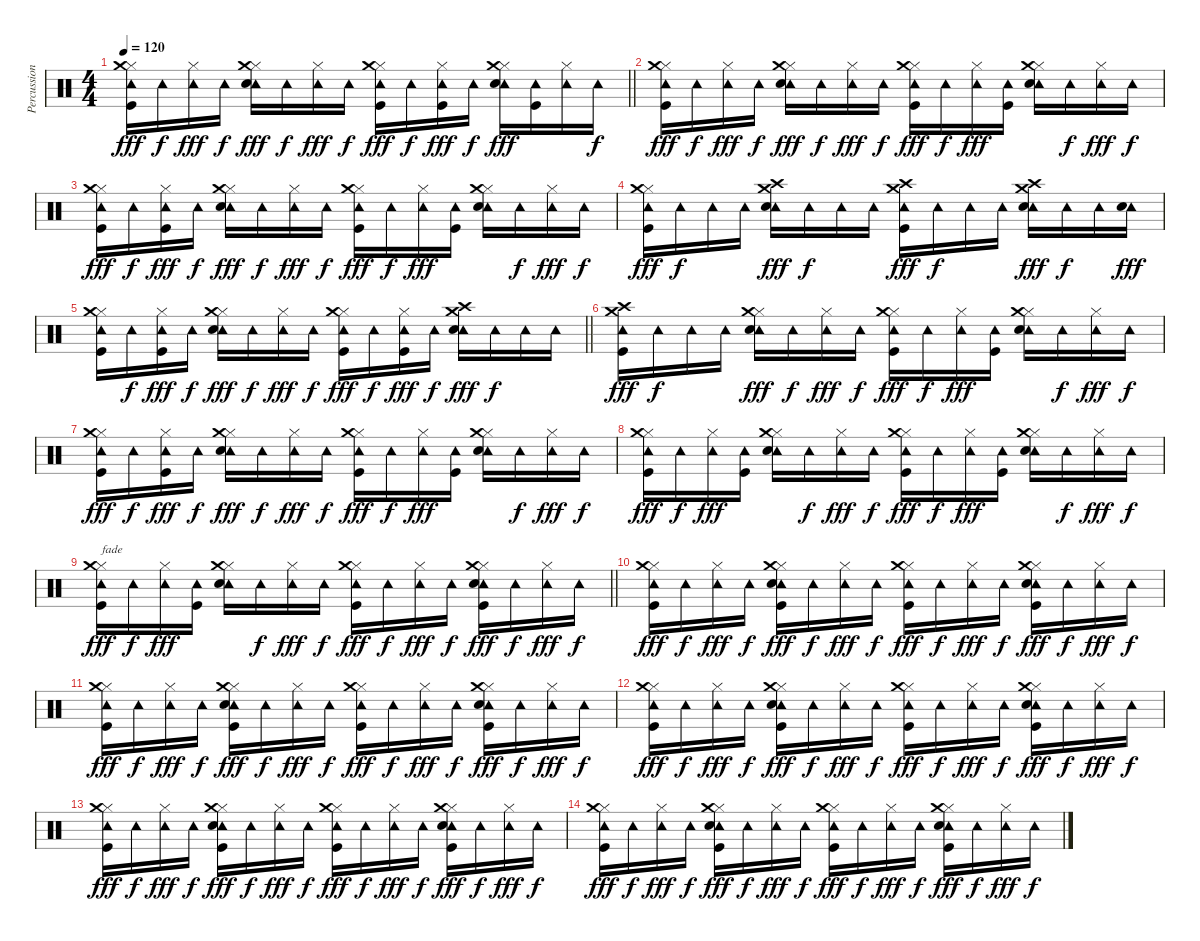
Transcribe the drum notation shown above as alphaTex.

\track ("Percussioni" "Percussion") {instrument percussion}
\staff {score}
\articulation defaults
\ts (4 4)
\tempo 120
\clef neutral
\barLineRight lightlight
\ks c
("Hi-Hat (closed)" "Tambourine (hit)" "Crash medium (hit)" "Kick (hit)").16{dy fff} "Tambourine (hit)".16{dy f} ("Hi-Hat (closed)" "Tambourine (hit)").16{dy fff} "Tambourine (hit)".16{dy f} ("Hi-Hat (closed)" "Tambourine (hit)" "Crash medium (hit)" "Snare (hit) 2").16{dy fff} "Tambourine (hit)".16{dy f} ("Hi-Hat (closed)" "Tambourine (hit)").16{dy fff} "Tambourine (hit)".16{dy f} ("Hi-Hat (closed)" "Tambourine (hit)" "Crash medium (hit)" "Kick (hit)").16{dy fff} "Tambourine (hit)".16{dy f} ("Hi-Hat (closed)" "Tambourine (hit)" "Kick (hit)").16{dy fff} "Tambourine (hit)".16{dy f} ("Hi-Hat (closed)" "Tambourine (hit)" "Crash medium (hit)" "Snare (hit) 2").16{dy fff} ("Tambourine (hit)" "Kick (hit)").16 ("Hi-Hat (closed)" "Tambourine (hit)").16 "Tambourine (hit)".16{dy f} |
("Hi-Hat (closed)" "Tambourine (hit)" "Crash medium (hit)" "Kick (hit)").16{dy fff} "Tambourine (hit)".16{dy f} ("Hi-Hat (closed)" "Tambourine (hit)").16{dy fff} "Tambourine (hit)".16{dy f} ("Hi-Hat (closed)" "Tambourine (hit)" "Crash medium (hit)" "Snare (hit) 2").16{dy fff} "Tambourine (hit)".16{dy f} ("Hi-Hat (closed)" "Tambourine (hit)").16{dy fff} "Tambourine (hit)".16{dy f} ("Hi-Hat (closed)" "Tambourine (hit)" "Crash medium (hit)" "Kick (hit)").16{dy fff} "Tambourine (hit)".16{dy f} ("Hi-Hat (closed)" "Tambourine (hit)").16{dy fff} ("Tambourine (hit)" "Kick (hit)").16 ("Hi-Hat (closed)" "Tambourine (hit)" "Crash medium (hit)" "Snare (hit) 2").16 "Tambourine (hit)".16{dy f} ("Hi-Hat (closed)" "Tambourine (hit)").16{dy fff} "Tambourine (hit)".16{dy f} |
("Hi-Hat (closed)" "Tambourine (hit)" "Crash medium (hit)" "Kick (hit)").16{dy fff} "Tambourine (hit)".16{dy f} ("Hi-Hat (closed)" "Tambourine (hit)" "Kick (hit)").16{dy fff} "Tambourine (hit)".16{dy f} ("Hi-Hat (closed)" "Tambourine (hit)" "Crash medium (hit)" "Snare (hit) 2").16{dy fff} "Tambourine (hit)".16{dy f} ("Hi-Hat (closed)" "Tambourine (hit)").16{dy fff} "Tambourine (hit)".16{dy f} ("Hi-Hat (closed)" "Tambourine (hit)" "Crash medium (hit)" "Kick (hit)").16{dy fff} "Tambourine (hit)".16{dy f} ("Hi-Hat (closed)" "Tambourine (hit)").16{dy fff} ("Tambourine (hit)" "Kick (hit)").16 ("Hi-Hat (closed)" "Tambourine (hit)" "Crash medium (hit)" "Snare (hit) 2").16 "Tambourine (hit)".16{dy f} ("Hi-Hat (closed)" "Tambourine (hit)").16{dy fff} "Tambourine (hit)".16{dy f} |
("Hi-Hat (closed)" "Tambourine (hit)" "Crash medium (hit)" "Kick (hit)").16{dy fff} "Tambourine (hit)".16{dy f} "Tambourine (hit)".16 "Tambourine (hit)".16 ("Crash high (hit)" "Tambourine (hit)" "Crash medium (hit)" "Snare (hit) 2").16{dy fff} "Tambourine (hit)".16{dy f} "Tambourine (hit)".16 "Tambourine (hit)".16 ("Crash high (hit)" "Tambourine (hit)" "Crash medium (hit)" "Kick (hit)").16{dy fff} "Tambourine (hit)".16{dy f} "Tambourine (hit)".16 "Tambourine (hit)".16 ("Crash high (hit)" "Tambourine (hit)" "Crash medium (hit)" "Snare (hit) 2").16{dy fff} "Tambourine (hit)".16{dy f} "Tambourine (hit)".16 ("Tambourine (hit)" "Snare (hit) 2").16{dy fff} |
\barLineRight lightlight
("Hi-Hat (closed)" "Tambourine (hit)" "Crash medium (hit)" "Kick (hit)").16 "Tambourine (hit)".16{dy f} ("Hi-Hat (closed)" "Tambourine (hit)" "Kick (hit)").16{dy fff} "Tambourine (hit)".16{dy f} ("Hi-Hat (closed)" "Tambourine (hit)" "Crash medium (hit)" "Snare (hit) 2").16{dy fff} "Tambourine (hit)".16{dy f} ("Hi-Hat (closed)" "Tambourine (hit)").16{dy fff} "Tambourine (hit)".16{dy f} ("Hi-Hat (closed)" "Tambourine (hit)" "Crash medium (hit)" "Kick (hit)").16{dy fff} "Tambourine (hit)".16{dy f} ("Hi-Hat (closed)" "Tambourine (hit)" "Kick (hit)").16{dy fff} "Tambourine (hit)".16{dy f} ("Crash high (hit)" "Tambourine (hit)" "Crash medium (hit)" "Snare (hit) 2").16{dy fff} "Tambourine (hit)".16{dy f} "Tambourine (hit)".16 "Tambourine (hit)".16 |
("Crash high (hit)" "Tambourine (hit)" "Crash medium (hit)" "Kick (hit)").16{dy fff} "Tambourine (hit)".16{dy f} "Tambourine (hit)".16 "Tambourine (hit)".16 ("Hi-Hat (closed)" "Tambourine (hit)" "Crash medium (hit)" "Snare (hit) 2").16{dy fff} "Tambourine (hit)".16{dy f} ("Hi-Hat (closed)" "Tambourine (hit)").16{dy fff} "Tambourine (hit)".16{dy f} ("Hi-Hat (closed)" "Tambourine (hit)" "Crash medium (hit)" "Kick (hit)").16{dy fff} "Tambourine (hit)".16{dy f} ("Hi-Hat (closed)" "Tambourine (hit)").16{dy fff} ("Tambourine (hit)" "Kick (hit)").16 ("Hi-Hat (closed)" "Tambourine (hit)" "Crash medium (hit)" "Snare (hit) 2").16 "Tambourine (hit)".16{dy f} ("Hi-Hat (closed)" "Tambourine (hit)").16{dy fff} "Tambourine (hit)".16{dy f} |
("Hi-Hat (closed)" "Tambourine (hit)" "Crash medium (hit)" "Kick (hit)").16{dy fff} "Tambourine (hit)".16{dy f} ("Hi-Hat (closed)" "Tambourine (hit)" "Kick (hit)").16{dy fff} "Tambourine (hit)".16{dy f} ("Hi-Hat (closed)" "Tambourine (hit)" "Crash medium (hit)" "Snare (hit) 2").16{dy fff} "Tambourine (hit)".16{dy f} ("Hi-Hat (closed)" "Tambourine (hit)").16{dy fff} "Tambourine (hit)".16{dy f} ("Hi-Hat (closed)" "Tambourine (hit)" "Crash medium (hit)" "Kick (hit)").16{dy fff} "Tambourine (hit)".16{dy f} ("Hi-Hat (closed)" "Tambourine (hit)").16{dy fff} ("Tambourine (hit)" "Kick (hit)").16 ("Hi-Hat (closed)" "Tambourine (hit)" "Crash medium (hit)" "Snare (hit) 2").16 "Tambourine (hit)".16{dy f} ("Hi-Hat (closed)" "Tambourine (hit)").16{dy fff} "Tambourine (hit)".16{dy f} |
("Hi-Hat (closed)" "Tambourine (hit)" "Crash medium (hit)" "Kick (hit)").16{dy fff} "Tambourine (hit)".16{dy f} ("Hi-Hat (closed)" "Tambourine (hit)").16{dy fff} ("Tambourine (hit)" "Kick (hit)").16 ("Hi-Hat (closed)" "Tambourine (hit)" "Crash medium (hit)" "Snare (hit) 2").16 "Tambourine (hit)".16{dy f} ("Hi-Hat (closed)" "Tambourine (hit)").16{dy fff} "Tambourine (hit)".16{dy f} ("Hi-Hat (closed)" "Tambourine (hit)" "Crash medium (hit)" "Kick (hit)").16{dy fff} "Tambourine (hit)".16{dy f} ("Hi-Hat (closed)" "Tambourine (hit)").16{dy fff} ("Tambourine (hit)" "Kick (hit)").16 ("Hi-Hat (closed)" "Tambourine (hit)" "Crash medium (hit)" "Snare (hit) 2").16 "Tambourine (hit)".16{dy f} ("Hi-Hat (closed)" "Tambourine (hit)").16{dy fff} "Tambourine (hit)".16{dy f} |
\barLineRight lightlight
("Hi-Hat (closed)" "Tambourine (hit)" "Crash medium (hit)" "Kick (hit)").16{txt "fade" dy fff} "Tambourine (hit)".16{dy f} ("Hi-Hat (closed)" "Tambourine (hit)").16{dy fff} ("Tambourine (hit)" "Kick (hit)").16 ("Hi-Hat (closed)" "Tambourine (hit)" "Crash medium (hit)" "Snare (hit) 2").16 "Tambourine (hit)".16{dy f} ("Hi-Hat (closed)" "Tambourine (hit)").16{dy fff} "Tambourine (hit)".16{dy f} ("Hi-Hat (closed)" "Tambourine (hit)" "Crash medium (hit)" "Kick (hit)").16{dy fff} "Tambourine (hit)".16{dy f} ("Hi-Hat (closed)" "Tambourine (hit)").16{dy fff} "Tambourine (hit)".16{dy f} ("Hi-Hat (closed)" "Tambourine (hit)" "Crash medium (hit)" "Snare (hit) 2" "Kick (hit)").16{dy fff} "Tambourine (hit)".16{dy f} ("Hi-Hat (closed)" "Tambourine (hit)").16{dy fff} "Tambourine (hit)".16{dy f} |
("Hi-Hat (closed)" "Tambourine (hit)" "Crash medium (hit)" "Kick (hit)").16{dy fff} "Tambourine (hit)".16{dy f} ("Hi-Hat (closed)" "Tambourine (hit)").16{dy fff} "Tambourine (hit)".16{dy f} ("Hi-Hat (closed)" "Tambourine (hit)" "Crash medium (hit)" "Snare (hit) 2" "Kick (hit)").16{dy fff} "Tambourine (hit)".16{dy f} ("Hi-Hat (closed)" "Tambourine (hit)").16{dy fff} "Tambourine (hit)".16{dy f} ("Hi-Hat (closed)" "Tambourine (hit)" "Crash medium (hit)" "Kick (hit)").16{dy fff} "Tambourine (hit)".16{dy f} ("Hi-Hat (closed)" "Tambourine (hit)").16{dy fff} "Tambourine (hit)".16{dy f} ("Hi-Hat (closed)" "Tambourine (hit)" "Crash medium (hit)" "Snare (hit) 2" "Kick (hit)").16{dy fff} "Tambourine (hit)".16{dy f} ("Hi-Hat (closed)" "Tambourine (hit)").16{dy fff} "Tambourine (hit)".16{dy f} |
("Hi-Hat (closed)" "Tambourine (hit)" "Crash medium (hit)" "Kick (hit)").16{dy fff} "Tambourine (hit)".16{dy f} ("Hi-Hat (closed)" "Tambourine (hit)").16{dy fff} "Tambourine (hit)".16{dy f} ("Hi-Hat (closed)" "Tambourine (hit)" "Crash medium (hit)" "Snare (hit) 2" "Kick (hit)").16{dy fff} "Tambourine (hit)".16{dy f} ("Hi-Hat (closed)" "Tambourine (hit)").16{dy fff} "Tambourine (hit)".16{dy f} ("Hi-Hat (closed)" "Tambourine (hit)" "Crash medium (hit)" "Kick (hit)").16{dy fff} "Tambourine (hit)".16{dy f} ("Hi-Hat (closed)" "Tambourine (hit)").16{dy fff} "Tambourine (hit)".16{dy f} ("Hi-Hat (closed)" "Tambourine (hit)" "Crash medium (hit)" "Snare (hit) 2" "Kick (hit)").16{dy fff} "Tambourine (hit)".16{dy f} ("Hi-Hat (closed)" "Tambourine (hit)").16{dy fff} "Tambourine (hit)".16{dy f} |
("Hi-Hat (closed)" "Tambourine (hit)" "Crash medium (hit)" "Kick (hit)").16{dy fff} "Tambourine (hit)".16{dy f} ("Hi-Hat (closed)" "Tambourine (hit)").16{dy fff} "Tambourine (hit)".16{dy f} ("Hi-Hat (closed)" "Tambourine (hit)" "Crash medium (hit)" "Snare (hit) 2" "Kick (hit)").16{dy fff} "Tambourine (hit)".16{dy f} ("Hi-Hat (closed)" "Tambourine (hit)").16{dy fff} "Tambourine (hit)".16{dy f} ("Hi-Hat (closed)" "Tambourine (hit)" "Crash medium (hit)" "Kick (hit)").16{dy fff} "Tambourine (hit)".16{dy f} ("Hi-Hat (closed)" "Tambourine (hit)").16{dy fff} "Tambourine (hit)".16{dy f} ("Hi-Hat (closed)" "Tambourine (hit)" "Crash medium (hit)" "Snare (hit) 2" "Kick (hit)").16{dy fff} "Tambourine (hit)".16{dy f} ("Hi-Hat (closed)" "Tambourine (hit)").16{dy fff} "Tambourine (hit)".16{dy f} |
("Hi-Hat (closed)" "Tambourine (hit)" "Crash medium (hit)" "Kick (hit)").16{dy fff volume 0} "Tambourine (hit)".16{dy f} ("Hi-Hat (closed)" "Tambourine (hit)").16{dy fff} "Tambourine (hit)".16{dy f} ("Hi-Hat (closed)" "Tambourine (hit)" "Crash medium (hit)" "Snare (hit) 2" "Kick (hit)").16{dy fff} "Tambourine (hit)".16{dy f} ("Hi-Hat (closed)" "Tambourine (hit)").16{dy fff} "Tambourine (hit)".16{dy f} ("Hi-Hat (closed)" "Tambourine (hit)" "Crash medium (hit)" "Kick (hit)").16{dy fff} "Tambourine (hit)".16{dy f} ("Hi-Hat (closed)" "Tambourine (hit)").16{dy fff} "Tambourine (hit)".16{dy f} ("Hi-Hat (closed)" "Tambourine (hit)" "Crash medium (hit)" "Snare (hit) 2" "Kick (hit)").16{dy fff} "Tambourine (hit)".16{dy f} ("Hi-Hat (closed)" "Tambourine (hit)").16{dy fff} "Tambourine (hit)".16{dy f} |
("Hi-Hat (closed)" "Tambourine (hit)" "Crash medium (hit)" "Kick (hit)").16{dy fff} "Tambourine (hit)".16{dy f} ("Hi-Hat (closed)" "Tambourine (hit)").16{dy fff} "Tambourine (hit)".16{dy f} ("Hi-Hat (closed)" "Tambourine (hit)" "Crash medium (hit)" "Snare (hit) 2" "Kick (hit)").16{dy fff} "Tambourine (hit)".16{dy f} ("Hi-Hat (closed)" "Tambourine (hit)").16{dy fff} "Tambourine (hit)".16{dy f} ("Hi-Hat (closed)" "Tambourine (hit)" "Crash medium (hit)" "Kick (hit)").16{dy fff} "Tambourine (hit)".16{dy f} ("Hi-Hat (closed)" "Tambourine (hit)").16{dy fff} "Tambourine (hit)".16{dy f} ("Hi-Hat (closed)" "Tambourine (hit)" "Crash medium (hit)" "Snare (hit) 2" "Kick (hit)").16{dy fff} "Tambourine (hit)".16{dy f} ("Hi-Hat (closed)" "Tambourine (hit)").16{dy fff} "Tambourine (hit)".16{dy f}
